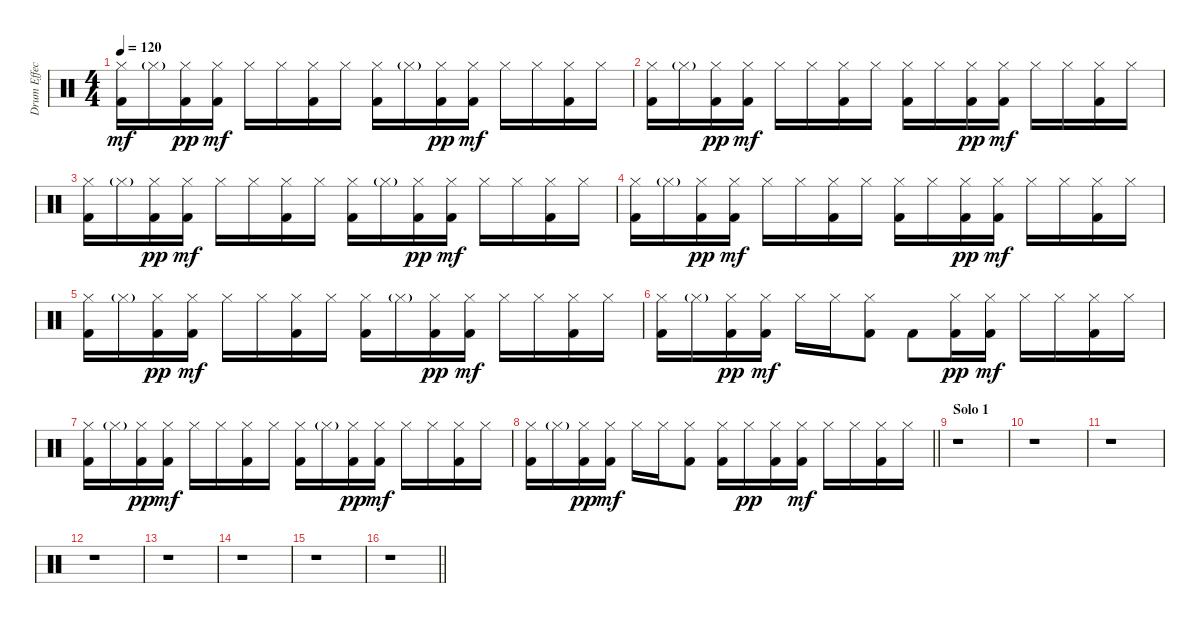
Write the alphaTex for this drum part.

\track ("Drum Effects" "Drum Effec") {instrument percussion}
\staff {score}
\articulation defaults
\ts (4 4)
\tempo 120
\clef neutral
\ks c
("Hi-Hat (closed)" "Kick (hit) 2").16{dy mf} "Hi-Hat (closed)"{g}.16 ("Hi-Hat (closed)" "Kick (hit) 2").16{dy pp} ("Hi-Hat (closed)" "Kick (hit) 2").16{dy mf} "Hi-Hat (closed)".16 "Hi-Hat (closed)".16 ("Hi-Hat (closed)" "Kick (hit) 2").16 "Hi-Hat (closed)".16 ("Hi-Hat (closed)" "Kick (hit) 2").16 "Hi-Hat (closed)"{g}.16 ("Hi-Hat (closed)" "Kick (hit) 2").16{dy pp} ("Hi-Hat (closed)" "Kick (hit) 2").16{dy mf} "Hi-Hat (closed)".16 "Hi-Hat (closed)".16 ("Hi-Hat (closed)" "Kick (hit) 2").16 "Hi-Hat (closed)".16 |
("Hi-Hat (closed)" "Kick (hit) 2").16 "Hi-Hat (closed)"{g}.16 ("Hi-Hat (closed)" "Kick (hit) 2").16{dy pp} ("Hi-Hat (closed)" "Kick (hit) 2").16{dy mf} "Hi-Hat (closed)".16 "Hi-Hat (closed)".16 ("Hi-Hat (closed)" "Kick (hit) 2").16 "Hi-Hat (closed)".16 ("Hi-Hat (closed)" "Kick (hit) 2").16 "Hi-Hat (closed)".16 ("Hi-Hat (closed)" "Kick (hit) 2").16{dy pp} ("Hi-Hat (closed)" "Kick (hit) 2").16{dy mf} "Hi-Hat (closed)".16 "Hi-Hat (closed)".16 ("Hi-Hat (closed)" "Kick (hit) 2").16 "Hi-Hat (closed)".16 |
("Hi-Hat (closed)" "Kick (hit) 2").16 "Hi-Hat (closed)"{g}.16 ("Hi-Hat (closed)" "Kick (hit) 2").16{dy pp} ("Hi-Hat (closed)" "Kick (hit) 2").16{dy mf} "Hi-Hat (closed)".16 "Hi-Hat (closed)".16 ("Hi-Hat (closed)" "Kick (hit) 2").16 "Hi-Hat (closed)".16 ("Hi-Hat (closed)" "Kick (hit) 2").16 "Hi-Hat (closed)"{g}.16 ("Hi-Hat (closed)" "Kick (hit) 2").16{dy pp} ("Hi-Hat (closed)" "Kick (hit) 2").16{dy mf} "Hi-Hat (closed)".16 "Hi-Hat (closed)".16 ("Hi-Hat (closed)" "Kick (hit) 2").16 "Hi-Hat (closed)".16 |
("Hi-Hat (closed)" "Kick (hit) 2").16 "Hi-Hat (closed)"{g}.16 ("Hi-Hat (closed)" "Kick (hit) 2").16{dy pp} ("Hi-Hat (closed)" "Kick (hit) 2").16{dy mf} "Hi-Hat (closed)".16 "Hi-Hat (closed)".16 ("Hi-Hat (closed)" "Kick (hit) 2").16 "Hi-Hat (closed)".16 ("Hi-Hat (closed)" "Kick (hit) 2").16 "Hi-Hat (closed)".16 ("Hi-Hat (closed)" "Kick (hit) 2").16{dy pp} ("Hi-Hat (closed)" "Kick (hit) 2").16{dy mf} "Hi-Hat (closed)".16 "Hi-Hat (closed)".16 ("Hi-Hat (closed)" "Kick (hit) 2").16 "Hi-Hat (closed)".16 |
("Hi-Hat (closed)" "Kick (hit) 2").16 "Hi-Hat (closed)"{g}.16 ("Hi-Hat (closed)" "Kick (hit) 2").16{dy pp} ("Hi-Hat (closed)" "Kick (hit) 2").16{dy mf} "Hi-Hat (closed)".16 "Hi-Hat (closed)".16 ("Hi-Hat (closed)" "Kick (hit) 2").16 "Hi-Hat (closed)".16 ("Hi-Hat (closed)" "Kick (hit) 2").16 "Hi-Hat (closed)"{g}.16 ("Hi-Hat (closed)" "Kick (hit) 2").16{dy pp} ("Hi-Hat (closed)" "Kick (hit) 2").16{dy mf} "Hi-Hat (closed)".16 "Hi-Hat (closed)".16 ("Hi-Hat (closed)" "Kick (hit) 2").16 "Hi-Hat (closed)".16 |
("Hi-Hat (closed)" "Kick (hit) 2").16 "Hi-Hat (closed)"{g}.16 ("Hi-Hat (closed)" "Kick (hit) 2").16{dy pp} ("Hi-Hat (closed)" "Kick (hit) 2").16{dy mf} "Hi-Hat (closed)".16 "Hi-Hat (closed)".16 ("Hi-Hat (closed)" "Kick (hit) 2").8 "Kick (hit) 2".8 ("Hi-Hat (closed)" "Kick (hit) 2").16{dy pp} ("Hi-Hat (closed)" "Kick (hit) 2").16{dy mf} "Hi-Hat (closed)".16 "Hi-Hat (closed)".16 ("Hi-Hat (closed)" "Kick (hit) 2").16 "Hi-Hat (closed)".16 |
("Hi-Hat (closed)" "Kick (hit) 2").16 "Hi-Hat (closed)"{g}.16 ("Hi-Hat (closed)" "Kick (hit) 2").16{dy pp} ("Hi-Hat (closed)" "Kick (hit) 2").16{dy mf} "Hi-Hat (closed)".16 "Hi-Hat (closed)".16 ("Hi-Hat (closed)" "Kick (hit) 2").16 "Hi-Hat (closed)".16 ("Hi-Hat (closed)" "Kick (hit) 2").16 "Hi-Hat (closed)"{g}.16 ("Hi-Hat (closed)" "Kick (hit) 2").16{dy pp} ("Hi-Hat (closed)" "Kick (hit) 2").16{dy mf} "Hi-Hat (closed)".16 "Hi-Hat (closed)".16 ("Hi-Hat (closed)" "Kick (hit) 2").16 "Hi-Hat (closed)".16 |
\barLineRight lightlight
("Hi-Hat (closed)" "Kick (hit) 2").16 "Hi-Hat (closed)"{g}.16 ("Hi-Hat (closed)" "Kick (hit) 2").16{dy pp} ("Hi-Hat (closed)" "Kick (hit) 2").16{dy mf} "Hi-Hat (closed)".16 "Hi-Hat (closed)".16 ("Hi-Hat (closed)" "Kick (hit) 2").8 ("Hi-Hat (closed)" "Kick (hit) 2").16 "Hi-Hat (closed)".16{dy pp} ("Hi-Hat (closed)" "Kick (hit) 2").16 ("Hi-Hat (closed)" "Kick (hit) 2").16{dy mf} "Hi-Hat (closed)".16 "Hi-Hat (closed)".16 ("Hi-Hat (closed)" "Kick (hit) 2").16 "Hi-Hat (closed)".16 |
\section ("" "Solo 1")
r.1 |
r.1 |
r.1 |
r.1 |
r.1 |
r.1 |
r.1 |
\barLineRight lightlight
r.1
